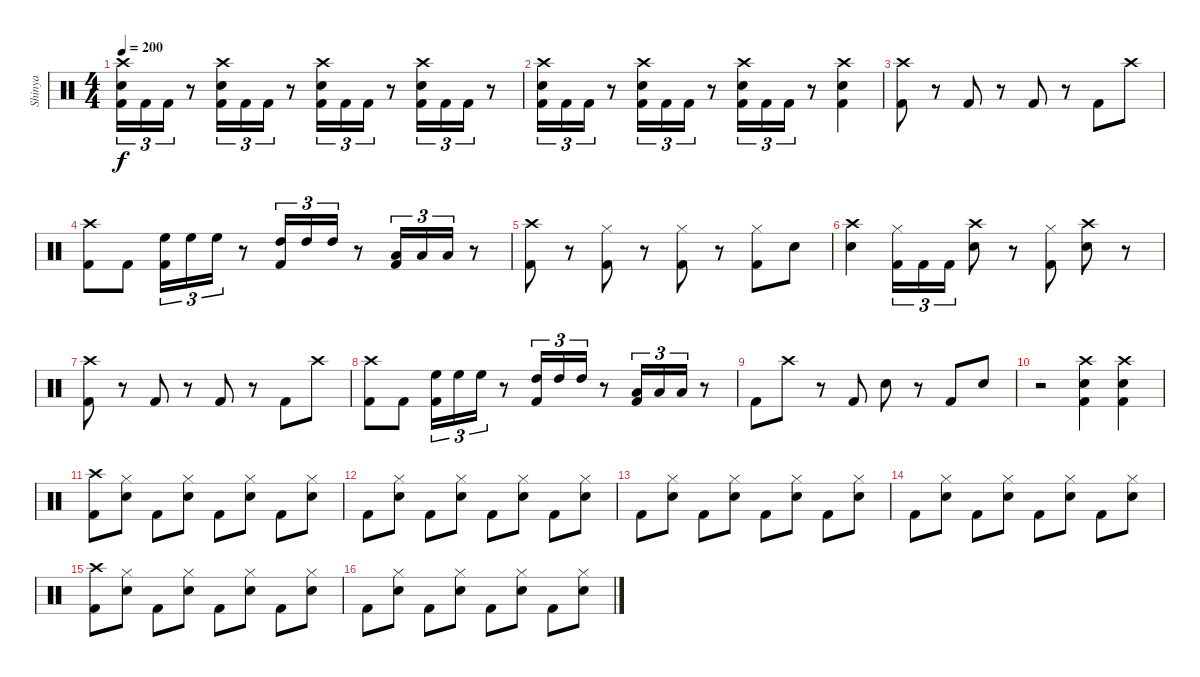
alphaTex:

\track ("Shinya" "Shinya") {instrument percussion}
\staff {score}
\articulation defaults
\ts (4 4)
\tempo 200
\clef neutral
\ks c
("Crash high (hit)" "Electric Snare (hit)" "Kick (hit) 2").16{tu (3 2) dy f} "Kick (hit) 2".16{tu (3 2)} "Kick (hit) 2".16{tu (3 2)} r.8 ("Crash high (hit)" "Electric Snare (hit)" "Kick (hit) 2").16{tu (3 2)} "Kick (hit) 2".16{tu (3 2)} "Kick (hit) 2".16{tu (3 2)} r.8 ("Crash high (hit)" "Electric Snare (hit)" "Kick (hit) 2").16{tu (3 2)} "Kick (hit) 2".16{tu (3 2)} "Kick (hit) 2".16{tu (3 2)} r.8 ("Crash high (hit)" "Electric Snare (hit)" "Kick (hit) 2").16{tu (3 2)} "Kick (hit) 2".16{tu (3 2)} "Kick (hit) 2".16{tu (3 2)} r.8 |
("Crash high (hit)" "Electric Snare (hit)" "Kick (hit) 2").16{tu (3 2)} "Kick (hit) 2".16{tu (3 2)} "Kick (hit) 2".16{tu (3 2)} r.8 ("Crash high (hit)" "Electric Snare (hit)" "Kick (hit) 2").16{tu (3 2)} "Kick (hit) 2".16{tu (3 2)} "Kick (hit) 2".16{tu (3 2)} r.8 ("Crash high (hit)" "Electric Snare (hit)" "Kick (hit) 2").16{tu (3 2)} "Kick (hit) 2".16{tu (3 2)} "Kick (hit) 2".16{tu (3 2)} r.8 ("Crash high (hit)" "Electric Snare (hit)" "Kick (hit) 2").4 |
("Crash high (hit)" "Kick (hit) 2").8 r.8 "Kick (hit) 2".8 r.8 "Kick (hit) 2".8 r.8 "Kick (hit) 2".8 "Crash high (hit)".8 |
("Crash high (hit)" "Kick (hit) 2").8 "Kick (hit) 2".8 ("High Floor Tom (hit)" "Kick (hit) 2").16{tu (3 2)} "High Floor Tom (hit)".16{tu (3 2)} "High Floor Tom (hit)".16{tu (3 2)} r.8 ("High Tom (hit)" "Kick (hit) 2").16{tu (3 2)} "High Tom (hit)".16{tu (3 2)} "High Tom (hit)".16{tu (3 2)} r.8 ("Low Tom (hit)" "Kick (hit) 2").16{tu (3 2)} "Low Tom (hit)".16{tu (3 2)} "Low Tom (hit)".16{tu (3 2)} r.8 |
("Crash high (hit)" "Kick (hit) 2").8 r.8 ("Hi-Hat (closed)" "Kick (hit) 2").8 r.8 ("Hi-Hat (closed)" "Kick (hit) 2").8 r.8 ("Hi-Hat (closed)" "Kick (hit) 2").8 "Electric Snare (hit)".8 |
("Crash high (hit)" "Electric Snare (hit)").4 ("Hi-Hat (closed)" "Kick (hit) 2").16{tu (3 2)} "Kick (hit) 2".16{tu (3 2)} "Kick (hit) 2".16{tu (3 2)} ("Crash high (hit)" "Electric Snare (hit)").8 r.8 ("Hi-Hat (closed)" "Kick (hit) 2").8 ("Crash high (hit)" "Electric Snare (hit)").8 r.8 |
("Crash high (hit)" "Kick (hit) 2").8 r.8 "Kick (hit) 2".8 r.8 "Kick (hit) 2".8 r.8 "Kick (hit) 2".8 "Crash high (hit)".8 |
("Crash high (hit)" "Kick (hit) 2").8 "Kick (hit) 2".8 ("High Floor Tom (hit)" "Kick (hit) 2").16{tu (3 2)} "High Floor Tom (hit)".16{tu (3 2)} "High Floor Tom (hit)".16{tu (3 2)} r.8 ("High Tom (hit)" "Kick (hit) 2").16{tu (3 2)} "High Tom (hit)".16{tu (3 2)} "High Tom (hit)".16{tu (3 2)} r.8 ("Low Tom (hit)" "Kick (hit) 2").16{tu (3 2)} "Low Tom (hit)".16{tu (3 2)} "Low Tom (hit)".16{tu (3 2)} r.8 |
"Kick (hit) 2".8 "Crash high (hit)".8 r.8 "Kick (hit) 2".8 "Electric Snare (hit)".8 r.8 "Kick (hit) 2".8 "Electric Snare (hit)".8 |
r.2 ("Crash high (hit)" "Electric Snare (hit)" "Kick (hit) 2").4 ("Crash high (hit)" "Electric Snare (hit)" "Kick (hit) 2").4 |
("Crash high (hit)" "Kick (hit) 2").8 ("Hi-Hat (closed)" "Electric Snare (hit)").8 "Kick (hit) 2".8 ("Hi-Hat (closed)" "Electric Snare (hit)").8 "Kick (hit) 2".8 ("Hi-Hat (closed)" "Electric Snare (hit)").8 "Kick (hit) 2".8 ("Hi-Hat (closed)" "Electric Snare (hit)").8 |
"Kick (hit) 2".8 ("Hi-Hat (closed)" "Electric Snare (hit)").8 "Kick (hit) 2".8 ("Hi-Hat (closed)" "Electric Snare (hit)").8 "Kick (hit) 2".8 ("Hi-Hat (closed)" "Electric Snare (hit)").8 "Kick (hit) 2".8 ("Hi-Hat (closed)" "Electric Snare (hit)").8 |
"Kick (hit) 2".8 ("Hi-Hat (closed)" "Electric Snare (hit)").8 "Kick (hit) 2".8 ("Hi-Hat (closed)" "Electric Snare (hit)").8 "Kick (hit) 2".8 ("Hi-Hat (closed)" "Electric Snare (hit)").8 "Kick (hit) 2".8 ("Hi-Hat (closed)" "Electric Snare (hit)").8 |
"Kick (hit) 2".8 ("Hi-Hat (closed)" "Electric Snare (hit)").8 "Kick (hit) 2".8 ("Hi-Hat (closed)" "Electric Snare (hit)").8 "Kick (hit) 2".8 ("Hi-Hat (closed)" "Electric Snare (hit)").8 "Kick (hit) 2".8 ("Hi-Hat (closed)" "Electric Snare (hit)").8 |
("Crash high (hit)" "Kick (hit) 2").8 ("Hi-Hat (closed)" "Electric Snare (hit)").8 "Kick (hit) 2".8 ("Hi-Hat (closed)" "Electric Snare (hit)").8 "Kick (hit) 2".8 ("Hi-Hat (closed)" "Electric Snare (hit)").8 "Kick (hit) 2".8 ("Hi-Hat (closed)" "Electric Snare (hit)").8 |
"Kick (hit) 2".8 ("Hi-Hat (closed)" "Electric Snare (hit)").8 "Kick (hit) 2".8 ("Hi-Hat (closed)" "Electric Snare (hit)").8 "Kick (hit) 2".8 ("Hi-Hat (closed)" "Electric Snare (hit)").8 "Kick (hit) 2".8 ("Hi-Hat (closed)" "Electric Snare (hit)").8
